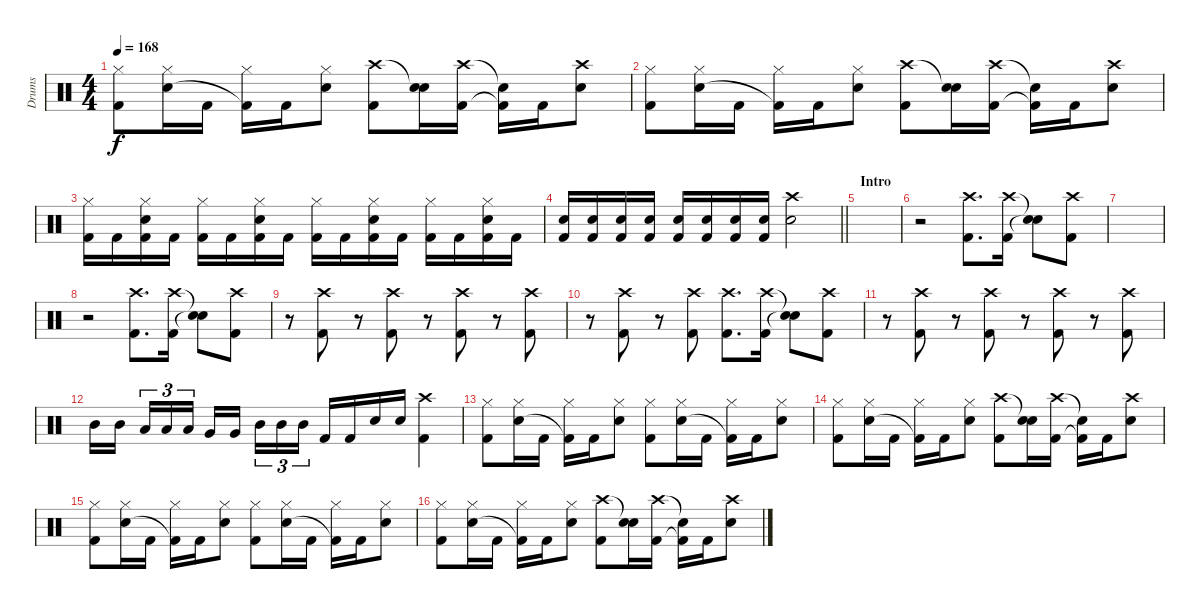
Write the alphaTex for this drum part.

\track ("Drums" "Drums") {instrument percussion}
\staff {score}
\articulation defaults
\ts (4 4)
\tempo 168
\clef neutral
\ks c
("Hi-Hat (closed)" "Kick (hit) 2").8{dy f} ("Hi-Hat (closed)" "Electric Snare (hit)").16 "Kick (hit) 2".16 ("Hi-Hat (closed)" "Kick (hit) 2"{t}).16 "Kick (hit) 2".16 ("Hi-Hat (closed)" "Electric Snare (hit)").8 ("Crash high (hit)" "Kick (hit) 2").8 ("Snare (hit)"{t} "Electric Snare (hit)").16 ("Crash high (hit)" "Kick (hit) 2").16 ("Snare (hit)"{t} "Kick (hit) 2"{t}).16 "Kick (hit) 2".16 ("Crash high (hit)" "Electric Snare (hit)").8 |
("Hi-Hat (closed)" "Kick (hit) 2").8 ("Hi-Hat (closed)" "Electric Snare (hit)").16 "Kick (hit) 2".16 ("Hi-Hat (closed)" "Kick (hit) 2"{t}).16 "Kick (hit) 2".16 ("Hi-Hat (closed)" "Electric Snare (hit)").8 ("Crash high (hit)" "Kick (hit) 2").8 ("Snare (hit)"{t} "Electric Snare (hit)").16 ("Crash high (hit)" "Kick (hit) 2").16 ("Snare (hit)"{t} "Kick (hit) 2"{t}).16 "Kick (hit) 2".16 ("Crash high (hit)" "Electric Snare (hit)").8 |
("Hi-Hat (closed)" "Kick (hit) 2").16 "Kick (hit) 2".16 ("Hi-Hat (closed)" "Electric Snare (hit)" "Kick (hit) 2").16 "Kick (hit) 2".16 ("Hi-Hat (closed)" "Kick (hit) 2").16 "Kick (hit) 2".16 ("Hi-Hat (closed)" "Electric Snare (hit)" "Kick (hit) 2").16 "Kick (hit) 2".16 ("Hi-Hat (closed)" "Kick (hit) 2").16 "Kick (hit) 2".16 ("Hi-Hat (closed)" "Electric Snare (hit)" "Kick (hit) 2").16 "Kick (hit) 2".16 ("Hi-Hat (closed)" "Kick (hit) 2").16 "Kick (hit) 2".16 ("Hi-Hat (closed)" "Electric Snare (hit)" "Kick (hit) 2").16 "Kick (hit) 2".16 |
\barLineRight lightlight
("Electric Snare (hit)" "Kick (hit) 2").16 ("Electric Snare (hit)" "Kick (hit) 2").16 ("Electric Snare (hit)" "Kick (hit) 2").16 ("Electric Snare (hit)" "Kick (hit) 2").16 ("Electric Snare (hit)" "Kick (hit) 2").16 ("Electric Snare (hit)" "Kick (hit) 2").16 ("Electric Snare (hit)" "Kick (hit) 2").16 ("Electric Snare (hit)" "Kick (hit) 2").16 ("Crash high (hit)" "Electric Snare (hit)").2 |
\section ("" "Intro")
|
r.2 ("Crash high (hit)" "Kick (hit) 2").8{d} ("Crash high (hit)" "Kick (hit) 2").16 ("Snare (hit)"{t} "Snare (hit)"{t}).8 ("Crash high (hit)" "Kick (hit) 2").8 |
|
r.2 ("Crash high (hit)" "Kick (hit) 2").8{d} ("Crash high (hit)" "Kick (hit) 2").16 ("Snare (hit)"{t} "Snare (hit)"{t}).8 ("Crash high (hit)" "Kick (hit) 2").8 |
r.8 ("Crash high (hit)" "Kick (hit) 2").8 r.8 ("Crash high (hit)" "Kick (hit) 2").8 r.8 ("Crash high (hit)" "Kick (hit) 2").8 r.8 ("Crash high (hit)" "Kick (hit) 2").8 |
r.8 ("Crash high (hit)" "Kick (hit) 2").8 r.8 ("Crash high (hit)" "Kick (hit) 2").8 ("Crash high (hit)" "Kick (hit) 2").8{d} ("Crash high (hit)" "Kick (hit) 2").16 ("Snare (hit)"{t} "Snare (hit)"{t}).8 ("Crash high (hit)" "Kick (hit) 2").8 |
r.8 ("Crash high (hit)" "Kick (hit) 2").8 r.8 ("Crash high (hit)" "Kick (hit) 2").8 r.8 ("Crash high (hit)" "Kick (hit) 2").8 r.8 ("Crash high (hit)" "Kick (hit) 2").8 |
"Mid Tom (hit)".16 "Mid Tom (hit)".16{beam splitsecondary} "Low Tom (hit)".16{tu (3 2)} "Low Tom (hit)".16{tu (3 2)} "Low Tom (hit)".16{tu (3 2)} "Very Low Tom (hit)".16 "Very Low Tom (hit)".16{beam splitsecondary} "Mid Tom (hit)".16{tu (3 2)} "Mid Tom (hit)".16{tu (3 2)} "Mid Tom (hit)".16{tu (3 2)} "Kick (hit) 2".16 "Kick (hit) 2".16 "Electric Snare (hit)".16 "Electric Snare (hit)".16 ("Crash high (hit)" "Kick (hit) 2").4 |
("Hi-Hat (closed)" "Kick (hit) 2").8 ("Hi-Hat (closed)" "Electric Snare (hit)").16 "Kick (hit) 2".16 ("Hi-Hat (closed)" "Kick (hit) 2"{t}).16 "Kick (hit) 2".16 ("Hi-Hat (closed)" "Electric Snare (hit)").8 ("Hi-Hat (closed)" "Kick (hit) 2").8 ("Hi-Hat (closed)" "Electric Snare (hit)").16 "Kick (hit) 2".16 ("Hi-Hat (closed)" "Kick (hit) 2"{t}).16 "Kick (hit) 2".16 ("Hi-Hat (closed)" "Electric Snare (hit)").8 |
("Hi-Hat (closed)" "Kick (hit) 2").8 ("Hi-Hat (closed)" "Electric Snare (hit)").16 "Kick (hit) 2".16 ("Hi-Hat (closed)" "Kick (hit) 2"{t}).16 "Kick (hit) 2".16 ("Hi-Hat (closed)" "Electric Snare (hit)").8 ("Crash high (hit)" "Kick (hit) 2").8 ("Snare (hit)"{t} "Electric Snare (hit)").16 ("Crash high (hit)" "Kick (hit) 2").16 ("Snare (hit)"{t} "Kick (hit) 2"{t}).16 "Kick (hit) 2".16 ("Crash high (hit)" "Electric Snare (hit)").8 |
("Hi-Hat (closed)" "Kick (hit) 2").8 ("Hi-Hat (closed)" "Electric Snare (hit)").16 "Kick (hit) 2".16 ("Hi-Hat (closed)" "Kick (hit) 2"{t}).16 "Kick (hit) 2".16 ("Hi-Hat (closed)" "Electric Snare (hit)").8 ("Hi-Hat (closed)" "Kick (hit) 2").8 ("Hi-Hat (closed)" "Electric Snare (hit)").16 "Kick (hit) 2".16 ("Hi-Hat (closed)" "Kick (hit) 2"{t}).16 "Kick (hit) 2".16 ("Hi-Hat (closed)" "Electric Snare (hit)").8 |
("Hi-Hat (closed)" "Kick (hit) 2").8 ("Hi-Hat (closed)" "Electric Snare (hit)").16 "Kick (hit) 2".16 ("Hi-Hat (closed)" "Kick (hit) 2"{t}).16 "Kick (hit) 2".16 ("Hi-Hat (closed)" "Electric Snare (hit)").8 ("Crash high (hit)" "Kick (hit) 2").8 ("Snare (hit)"{t} "Electric Snare (hit)").16 ("Crash high (hit)" "Kick (hit) 2").16 ("Snare (hit)"{t} "Kick (hit) 2"{t}).16 "Kick (hit) 2".16 ("Crash high (hit)" "Electric Snare (hit)").8
